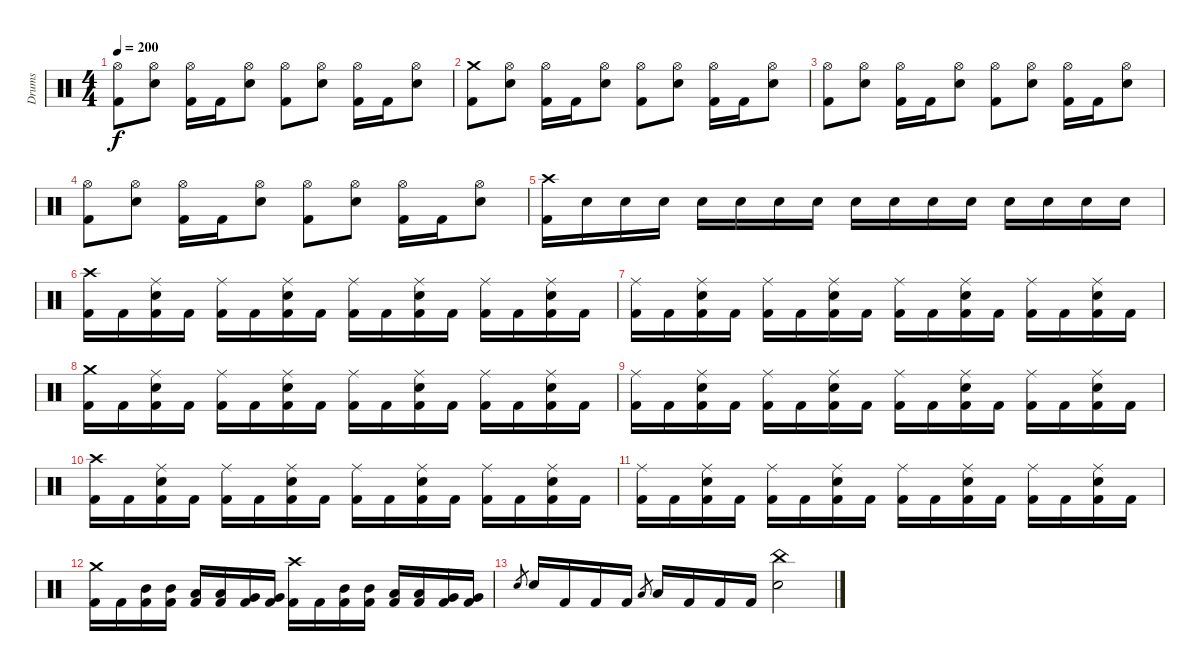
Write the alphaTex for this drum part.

\track ("Drums" "Drums") {instrument percussion}
\staff {score}
\articulation defaults
\ts (4 4)
\tempo 200
\clef neutral
\ks c
("Hi-Hat (open)" "Kick (hit) 2").8{dy f} ("Hi-Hat (open)" "Electric Snare (hit)").8 ("Hi-Hat (open)" "Kick (hit) 2").16 "Kick (hit) 2".16 ("Hi-Hat (open)" "Electric Snare (hit)").8 ("Hi-Hat (open)" "Kick (hit) 2").8 ("Hi-Hat (open)" "Electric Snare (hit)").8 ("Hi-Hat (open)" "Kick (hit) 2").16 "Kick (hit) 2".16 ("Hi-Hat (open)" "Electric Snare (hit)").8 |
("Crash medium (hit)" "Kick (hit) 2").8 ("Hi-Hat (open)" "Electric Snare (hit)").8 ("Hi-Hat (open)" "Kick (hit) 2").16 "Kick (hit) 2".16 ("Hi-Hat (open)" "Electric Snare (hit)").8 ("Hi-Hat (open)" "Kick (hit) 2").8 ("Hi-Hat (open)" "Electric Snare (hit)").8 ("Hi-Hat (open)" "Kick (hit) 2").16 "Kick (hit) 2".16 ("Hi-Hat (open)" "Electric Snare (hit)").8 |
("Hi-Hat (open)" "Kick (hit) 2").8 ("Hi-Hat (open)" "Electric Snare (hit)").8 ("Hi-Hat (open)" "Kick (hit) 2").16 "Kick (hit) 2".16 ("Hi-Hat (open)" "Electric Snare (hit)").8 ("Hi-Hat (open)" "Kick (hit) 2").8 ("Hi-Hat (open)" "Electric Snare (hit)").8 ("Hi-Hat (open)" "Kick (hit) 2").16 "Kick (hit) 2".16 ("Hi-Hat (open)" "Electric Snare (hit)").8 |
("Hi-Hat (open)" "Kick (hit) 2").8 ("Hi-Hat (open)" "Electric Snare (hit)").8 ("Hi-Hat (open)" "Kick (hit) 2").16 "Kick (hit) 2".16 ("Hi-Hat (open)" "Electric Snare (hit)").8 ("Hi-Hat (open)" "Kick (hit) 2").8 ("Hi-Hat (open)" "Electric Snare (hit)").8 ("Hi-Hat (open)" "Kick (hit) 2").16 "Kick (hit) 2".16 ("Hi-Hat (open)" "Electric Snare (hit)").8 |
("Crash high (hit)" "Kick (hit) 2").16 "Electric Snare (hit)".16 "Electric Snare (hit)".16 "Electric Snare (hit)".16 "Electric Snare (hit)".16 "Electric Snare (hit)".16 "Electric Snare (hit)".16 "Electric Snare (hit)".16 "Electric Snare (hit)".16 "Electric Snare (hit)".16 "Electric Snare (hit)".16 "Electric Snare (hit)".16 "Electric Snare (hit)".16 "Electric Snare (hit)".16 "Electric Snare (hit)".16 "Electric Snare (hit)".16 |
("Crash high (hit)" "Kick (hit) 2").16 "Kick (hit) 2".16 ("Ride (middle)" "Electric Snare (hit)" "Kick (hit) 2").16 "Kick (hit) 2".16 ("Ride (middle)" "Kick (hit) 2").16 "Kick (hit) 2".16 ("Ride (middle)" "Electric Snare (hit)" "Kick (hit) 2").16 "Kick (hit) 2".16 ("Ride (middle)" "Kick (hit) 2").16 "Kick (hit) 2".16 ("Ride (middle)" "Electric Snare (hit)" "Kick (hit) 2").16 "Kick (hit) 2".16 ("Ride (middle)" "Kick (hit) 2").16 "Kick (hit) 2".16 ("Ride (middle)" "Electric Snare (hit)" "Kick (hit) 2").16 "Kick (hit) 2".16 |
("Ride (middle)" "Kick (hit) 2").16 "Kick (hit) 2".16 ("Ride (middle)" "Electric Snare (hit)" "Kick (hit) 2").16 "Kick (hit) 2".16 ("Ride (middle)" "Kick (hit) 2").16 "Kick (hit) 2".16 ("Ride (middle)" "Electric Snare (hit)" "Kick (hit) 2").16 "Kick (hit) 2".16 ("Ride (middle)" "Kick (hit) 2").16 "Kick (hit) 2".16 ("Ride (middle)" "Electric Snare (hit)" "Kick (hit) 2").16 "Kick (hit) 2".16 ("Ride (middle)" "Kick (hit) 2").16 "Kick (hit) 2".16 ("Ride (middle)" "Electric Snare (hit)" "Kick (hit) 2").16 "Kick (hit) 2".16 |
("Crash medium (hit)" "Kick (hit) 2").16 "Kick (hit) 2".16 ("Ride (middle)" "Electric Snare (hit)" "Kick (hit) 2").16 "Kick (hit) 2".16 ("Ride (middle)" "Kick (hit) 2").16 "Kick (hit) 2".16 ("Ride (middle)" "Electric Snare (hit)" "Kick (hit) 2").16 "Kick (hit) 2".16 ("Ride (middle)" "Kick (hit) 2").16 "Kick (hit) 2".16 ("Ride (middle)" "Electric Snare (hit)" "Kick (hit) 2").16 "Kick (hit) 2".16 ("Ride (middle)" "Kick (hit) 2").16 "Kick (hit) 2".16 ("Ride (middle)" "Electric Snare (hit)" "Kick (hit) 2").16 "Kick (hit) 2".16 |
("Ride (middle)" "Kick (hit) 2").16 "Kick (hit) 2".16 ("Ride (middle)" "Electric Snare (hit)" "Kick (hit) 2").16 "Kick (hit) 2".16 ("Ride (middle)" "Kick (hit) 2").16 "Kick (hit) 2".16 ("Ride (middle)" "Electric Snare (hit)" "Kick (hit) 2").16 "Kick (hit) 2".16 ("Ride (middle)" "Kick (hit) 2").16 "Kick (hit) 2".16 ("Ride (middle)" "Electric Snare (hit)" "Kick (hit) 2").16 "Kick (hit) 2".16 ("Ride (middle)" "Kick (hit) 2").16 "Kick (hit) 2".16 ("Ride (middle)" "Electric Snare (hit)" "Kick (hit) 2").16 "Kick (hit) 2".16 |
("Crash high (hit)" "Kick (hit) 2").16 "Kick (hit) 2".16 ("Ride (middle)" "Electric Snare (hit)" "Kick (hit) 2").16 "Kick (hit) 2".16 ("Ride (middle)" "Kick (hit) 2").16 "Kick (hit) 2".16 ("Ride (middle)" "Electric Snare (hit)" "Kick (hit) 2").16 "Kick (hit) 2".16 ("Ride (middle)" "Kick (hit) 2").16 "Kick (hit) 2".16 ("Ride (middle)" "Electric Snare (hit)" "Kick (hit) 2").16 "Kick (hit) 2".16 ("Ride (middle)" "Kick (hit) 2").16 "Kick (hit) 2".16 ("Ride (middle)" "Electric Snare (hit)" "Kick (hit) 2").16 "Kick (hit) 2".16 |
("Ride (middle)" "Kick (hit) 2").16 "Kick (hit) 2".16 ("Ride (middle)" "Electric Snare (hit)" "Kick (hit) 2").16 "Kick (hit) 2".16 ("Ride (middle)" "Kick (hit) 2").16 "Kick (hit) 2".16 ("Ride (middle)" "Electric Snare (hit)" "Kick (hit) 2").16 "Kick (hit) 2".16 ("Ride (middle)" "Kick (hit) 2").16 "Kick (hit) 2".16 ("Ride (middle)" "Electric Snare (hit)" "Kick (hit) 2").16 "Kick (hit) 2".16 ("Ride (middle)" "Kick (hit) 2").16 "Kick (hit) 2".16 ("Ride (middle)" "Electric Snare (hit)" "Kick (hit) 2").16 "Kick (hit) 2".16 |
("Crash medium (hit)" "Kick (hit) 2").16 "Kick (hit) 2".16 ("Mid Tom (hit)" "Kick (hit) 2").16 ("Mid Tom (hit)" "Kick (hit) 2").16 ("Low Tom (hit)" "Kick (hit) 2").16 ("Low Tom (hit)" "Kick (hit) 2").16 ("Very Low Tom (hit)" "Kick (hit) 2").16 ("Very Low Tom (hit)" "Kick (hit) 2").16 ("Crash high (hit)" "Kick (hit) 2").16 "Kick (hit) 2".16 ("Mid Tom (hit)" "Kick (hit) 2").16 ("Mid Tom (hit)" "Kick (hit) 2").16 ("Low Tom (hit)" "Kick (hit) 2").16 ("Low Tom (hit)" "Kick (hit) 2").16 ("Very Low Tom (hit)" "Kick (hit) 2").16 ("Very Low Tom (hit)" "Kick (hit) 2").16 |
"Electric Snare (hit)".8{gr} "Electric Snare (hit)".16 "Kick (hit) 2".16 "Kick (hit) 2".16 "Kick (hit) 2".16 "Low Floor Tom (hit)".8{gr} "Low Tom (hit)".16 "Kick (hit) 2".16 "Kick (hit) 2".16 "Kick (hit) 2".16 ("China (hit)" "Electric Snare (hit)").2
